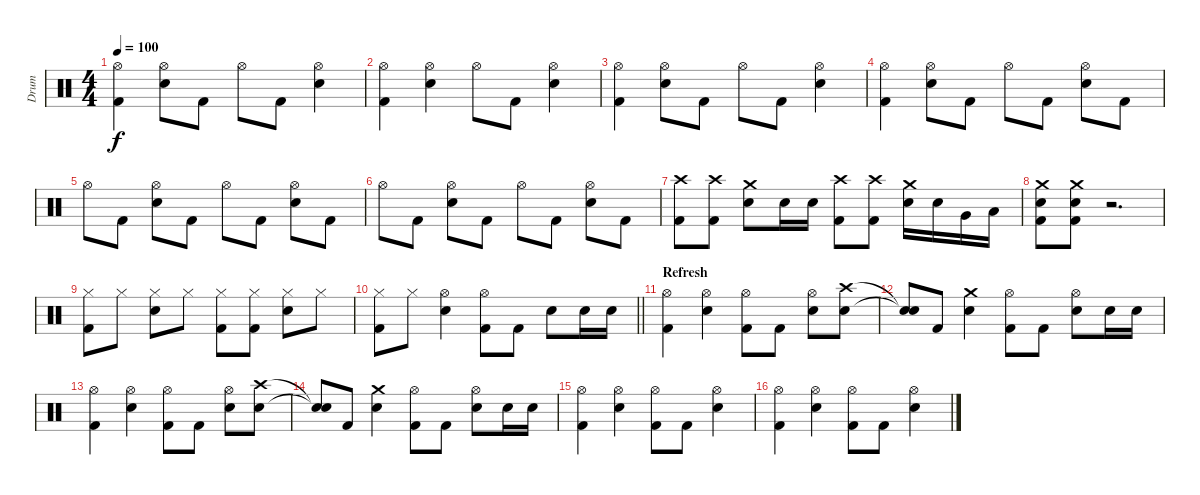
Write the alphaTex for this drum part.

\track ("Drum" "Drum") {instrument percussion}
\staff {score}
\articulation defaults
\ts (4 4)
\tempo 100
\clef neutral
\ks c
("Hi-Hat (open)" "Kick (hit) 2").4{dy f} ("Hi-Hat (open)" "Electric Snare (hit)").8 "Kick (hit) 2".8 "Hi-Hat (open)".8 "Kick (hit) 2".8 ("Electric Snare (hit)" "Hi-Hat (open)").4 |
("Hi-Hat (open)" "Kick (hit) 2").4 ("Hi-Hat (open)" "Electric Snare (hit)").4 "Hi-Hat (open)".8 "Kick (hit) 2".8 ("Hi-Hat (open)" "Electric Snare (hit)").4 |
("Kick (hit) 2" "Hi-Hat (open)").4 ("Electric Snare (hit)" "Hi-Hat (open)").8 "Kick (hit) 2".8 "Hi-Hat (open)".8 "Kick (hit) 2".8 ("Electric Snare (hit)" "Hi-Hat (open)").4 |
("Hi-Hat (open)" "Kick (hit) 2").4 ("Hi-Hat (open)" "Electric Snare (hit)").8 "Kick (hit) 2".8 "Hi-Hat (open)".8 "Kick (hit) 2".8 ("Electric Snare (hit)" "Hi-Hat (open)").8 "Kick (hit) 2".8 |
"Hi-Hat (open)".8 "Kick (hit) 2".8 ("Hi-Hat (open)" "Electric Snare (hit)").8 "Kick (hit) 2".8 "Hi-Hat (open)".8 "Kick (hit) 2".8 ("Electric Snare (hit)" "Hi-Hat (open)").8 "Kick (hit) 2".8 |
"Hi-Hat (open)".8 "Kick (hit) 2".8 ("Electric Snare (hit)" "Hi-Hat (open)").8 "Kick (hit) 2".8 "Hi-Hat (open)".8 "Kick (hit) 2".8 ("Electric Snare (hit)" "Hi-Hat (open)").8 "Kick (hit) 2".8 |
("Crash high (hit)" "Kick (hit) 2").8 ("Crash high (hit)" "Kick (hit) 2").8 ("Crash medium (hit)" "Electric Snare (hit)").8 "Electric Snare (hit)".16 "Electric Snare (hit)".16 ("Crash high (hit)" "Kick (hit) 2").8 ("Crash high (hit)" "Kick (hit) 2").8 ("Crash medium (hit)" "Electric Snare (hit)").16 "Electric Snare (hit)".16 "Very Low Tom (hit)".16 "Low Floor Tom (hit)".16 |
("Crash medium (hit)" "Electric Snare (hit)" "Kick (hit) 2").8 ("Crash medium (hit)" "Electric Snare (hit)" "Kick (hit) 2").8 r.2{d} |
("Kick (hit) 2" "Hi-Hat (closed)").8 "Hi-Hat (closed)".8 ("Electric Snare (hit)" "Hi-Hat (closed)").8 "Hi-Hat (closed)".8 ("Kick (hit) 2" "Hi-Hat (closed)").8 ("Hi-Hat (closed)" "Kick (hit) 2").8 ("Electric Snare (hit)" "Hi-Hat (closed)").8 "Hi-Hat (closed)".8 |
\barLineRight lightlight
("Hi-Hat (closed)" "Kick (hit) 2").8 "Hi-Hat (closed)".8 ("Hi-Hat (open)" "Electric Snare (hit)").4 ("Hi-Hat (open)" "Kick (hit) 2").8 "Kick (hit) 2".8 "Electric Snare (hit)".8 "Electric Snare (hit)".16 "Electric Snare (hit)".16 |
\section ("" "Refresh")
("Hi-Hat (open)" "Kick (hit) 2").4 ("Hi-Hat (open)" "Electric Snare (hit)").4 ("Hi-Hat (open)" "Kick (hit) 2").8 "Kick (hit) 2".8 ("Hi-Hat (open)" "Electric Snare (hit)").8 ("Crash high (hit)" "Electric Snare (hit)").8 |
("Snare (hit)"{t} "Snare (hit)"{t}).8 "Kick (hit) 2".8 ("Crash medium (hit)" "Electric Snare (hit)").4 ("Kick (hit) 2" "Hi-Hat (open)").8 "Kick (hit) 2".8 ("Electric Snare (hit)" "Hi-Hat (open)").8 "Electric Snare (hit)".16 "Electric Snare (hit)".16 |
("Hi-Hat (open)" "Kick (hit) 2").4 ("Hi-Hat (open)" "Electric Snare (hit)").4 ("Kick (hit) 2" "Hi-Hat (open)").8 "Kick (hit) 2".8 ("Hi-Hat (open)" "Electric Snare (hit)").8 ("Crash high (hit)" "Electric Snare (hit)").8 |
("Snare (hit)"{t} "Snare (hit)"{t}).8 "Kick (hit) 2".8 ("Crash medium (hit)" "Electric Snare (hit)").4 ("Kick (hit) 2" "Hi-Hat (open)").8 "Kick (hit) 2".8 ("Electric Snare (hit)" "Hi-Hat (open)").8 "Electric Snare (hit)".16 "Electric Snare (hit)".16 |
("Kick (hit) 2" "Hi-Hat (open)").4 ("Hi-Hat (open)" "Electric Snare (hit)").4 ("Kick (hit) 2" "Hi-Hat (open)").8 "Kick (hit) 2".8 ("Electric Snare (hit)" "Hi-Hat (open)").4 |
("Hi-Hat (open)" "Kick (hit) 2").4 ("Hi-Hat (open)" "Electric Snare (hit)").4 ("Hi-Hat (open)" "Kick (hit) 2").8 "Kick (hit) 2".8 ("Hi-Hat (open)" "Electric Snare (hit)").4
